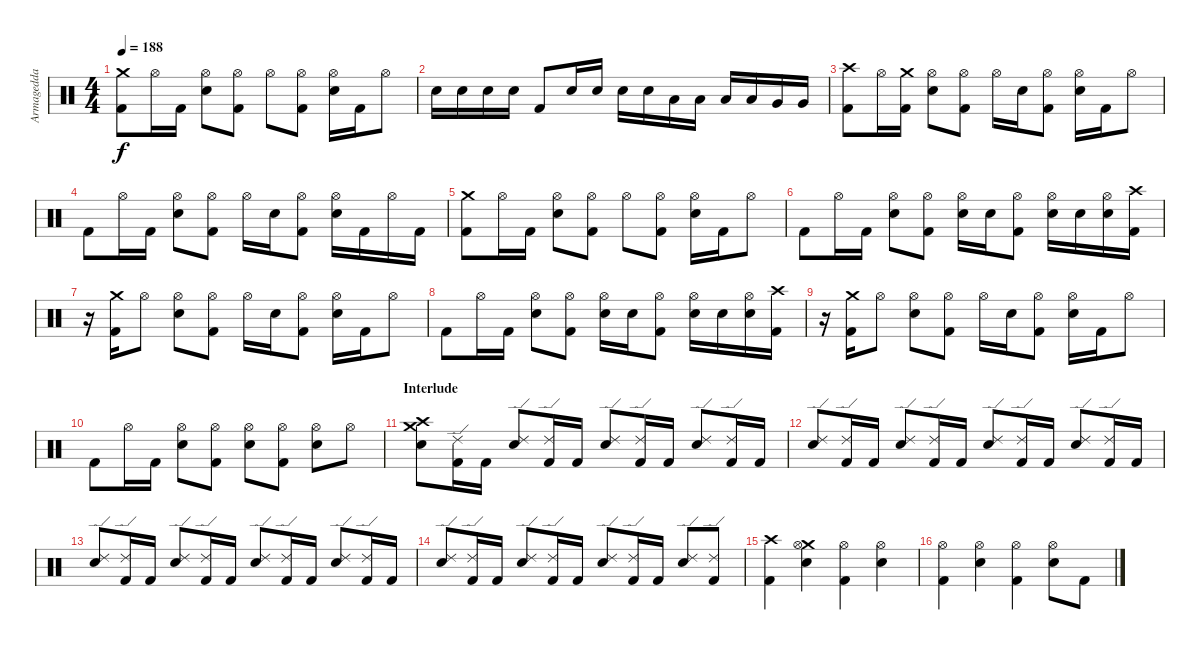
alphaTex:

\track ("Armagedda" "Armagedda") {instrument percussion}
\staff {score}
\articulation defaults
\ts (4 4)
\tempo 188
\clef neutral
\ks c
("Crash medium (hit)" "Kick (hit) 2").8{dy f} "Hi-Hat (open)".16 "Kick (hit) 2".16 ("Hi-Hat (open)" "Electric Snare (hit)").8 ("Hi-Hat (open)" "Kick (hit) 2").8 "Hi-Hat (open)".8 ("Hi-Hat (open)" "Kick (hit) 2").8 ("Hi-Hat (open)" "Electric Snare (hit)").16 "Kick (hit) 2".16 "Hi-Hat (open)".8 |
"Electric Snare (hit)".16 "Electric Snare (hit)".16 "Electric Snare (hit)".16 "Electric Snare (hit)".16 "Kick (hit) 2".8 "Electric Snare (hit)".16 "Electric Snare (hit)".16 "Electric Snare (hit)".16 "Electric Snare (hit)".16 "Low Tom (hit)".16 "Low Tom (hit)".16 "Low Tom (hit)".16 "Low Tom (hit)".16 "Very Low Tom (hit)".16 "Very Low Tom (hit)".16 |
("Crash high (hit)" "Kick (hit) 2").8 "Hi-Hat (open)".16 ("Crash medium (hit)" "Kick (hit) 2").16 ("Hi-Hat (open)" "Electric Snare (hit)").8 ("Hi-Hat (open)" "Kick (hit) 2").8 "Hi-Hat (open)".16 "Electric Snare (hit)".16 ("Hi-Hat (open)" "Kick (hit) 2").8 ("Hi-Hat (open)" "Electric Snare (hit)").16 "Kick (hit) 2".16 "Hi-Hat (open)".8 |
"Kick (hit) 2".8 "Hi-Hat (open)".16 "Kick (hit) 2".16 ("Hi-Hat (open)" "Electric Snare (hit)").8 ("Hi-Hat (open)" "Kick (hit) 2").8 "Hi-Hat (open)".16 "Electric Snare (hit)".16 ("Hi-Hat (open)" "Kick (hit) 2").8 ("Hi-Hat (open)" "Electric Snare (hit)").16 "Kick (hit) 2".16 "Hi-Hat (open)".16 "Kick (hit) 2".16 |
("Crash medium (hit)" "Kick (hit) 2").8 "Hi-Hat (open)".16 "Kick (hit) 2".16 ("Hi-Hat (open)" "Electric Snare (hit)").8 ("Hi-Hat (open)" "Kick (hit) 2").8 "Hi-Hat (open)".8 ("Hi-Hat (open)" "Kick (hit) 2").8 ("Hi-Hat (open)" "Electric Snare (hit)").16 "Kick (hit) 2".16 "Hi-Hat (open)".8 |
"Kick (hit) 2".8 "Hi-Hat (open)".16 "Kick (hit) 2".16 ("Hi-Hat (open)" "Electric Snare (hit)").8 ("Hi-Hat (open)" "Kick (hit) 2").8 ("Hi-Hat (open)" "Electric Snare (hit)").16 "Electric Snare (hit)".16 ("Hi-Hat (open)" "Kick (hit) 2").8 ("Hi-Hat (open)" "Electric Snare (hit)").16 "Electric Snare (hit)".16 ("Hi-Hat (open)" "Electric Snare (hit)").16 ("Crash high (hit)" "Kick (hit) 2").16 |
r.16 ("Crash medium (hit)" "Kick (hit) 2").16 "Hi-Hat (open)".8 ("Hi-Hat (open)" "Electric Snare (hit)").8 ("Hi-Hat (open)" "Kick (hit) 2").8 "Hi-Hat (open)".16 "Electric Snare (hit)".16 ("Hi-Hat (open)" "Kick (hit) 2").8 ("Hi-Hat (open)" "Electric Snare (hit)").16 "Kick (hit) 2".16 "Hi-Hat (open)".8 |
"Kick (hit) 2".8 "Hi-Hat (open)".16 "Kick (hit) 2".16 ("Hi-Hat (open)" "Electric Snare (hit)").8 ("Hi-Hat (open)" "Kick (hit) 2").8 ("Hi-Hat (open)" "Electric Snare (hit)").16 "Electric Snare (hit)".16 ("Hi-Hat (open)" "Kick (hit) 2").8 ("Hi-Hat (open)" "Electric Snare (hit)").16 "Electric Snare (hit)".16 ("Hi-Hat (open)" "Electric Snare (hit)").16 ("Crash high (hit)" "Kick (hit) 2").16 |
r.16 ("Crash medium (hit)" "Kick (hit) 2").16 "Hi-Hat (open)".8 ("Hi-Hat (open)" "Electric Snare (hit)").8 ("Hi-Hat (open)" "Kick (hit) 2").8 "Hi-Hat (open)".16 "Electric Snare (hit)".16 ("Hi-Hat (open)" "Kick (hit) 2").8 ("Hi-Hat (open)" "Electric Snare (hit)").16 "Kick (hit) 2".16 "Hi-Hat (open)".8 |
"Kick (hit) 2".8 "Hi-Hat (open)".16 "Kick (hit) 2".16 ("Hi-Hat (open)" "Electric Snare (hit)").8 ("Hi-Hat (open)" "Kick (hit) 2").8 ("Hi-Hat (open)" "Electric Snare (hit)").8 ("Hi-Hat (open)" "Kick (hit) 2").8 ("Hi-Hat (open)" "Electric Snare (hit)").8 "Hi-Hat (open)".8 |
\section ("" "Interlude")
("Crash medium (hit)" "Crash high (hit)" "Electric Snare (hit)").8 ("Ride (edge) 2" "Kick (hit) 2").16 "Kick (hit) 2".16 ("Ride (edge) 2" "Electric Snare (hit)").8 ("Ride (edge) 2" "Kick (hit) 2").16 "Kick (hit) 2".16 ("Ride (edge) 2" "Electric Snare (hit)").8 ("Ride (edge) 2" "Kick (hit) 2").16 "Kick (hit) 2".16 ("Ride (edge) 2" "Electric Snare (hit)").8 ("Ride (edge) 2" "Kick (hit) 2").16 "Kick (hit) 2".16 |
("Ride (edge) 2" "Electric Snare (hit)").8 ("Ride (edge) 2" "Kick (hit) 2").16 "Kick (hit) 2".16 ("Ride (edge) 2" "Electric Snare (hit)").8 ("Ride (edge) 2" "Kick (hit) 2").16 "Kick (hit) 2".16 ("Ride (edge) 2" "Electric Snare (hit)").8 ("Ride (edge) 2" "Kick (hit) 2").16 "Kick (hit) 2".16 ("Ride (edge) 2" "Electric Snare (hit)").8 ("Ride (edge) 2" "Kick (hit) 2").16 "Kick (hit) 2".16 |
("Ride (edge) 2" "Electric Snare (hit)").8 ("Ride (edge) 2" "Kick (hit) 2").16 "Kick (hit) 2".16 ("Ride (edge) 2" "Electric Snare (hit)").8 ("Ride (edge) 2" "Kick (hit) 2").16 "Kick (hit) 2".16 ("Ride (edge) 2" "Electric Snare (hit)").8 ("Ride (edge) 2" "Kick (hit) 2").16 "Kick (hit) 2".16 ("Ride (edge) 2" "Electric Snare (hit)").8 ("Ride (edge) 2" "Kick (hit) 2").16 "Kick (hit) 2".16 |
("Ride (edge) 2" "Electric Snare (hit)").8 ("Ride (edge) 2" "Kick (hit) 2").16 "Kick (hit) 2".16 ("Ride (edge) 2" "Electric Snare (hit)").8 ("Ride (edge) 2" "Kick (hit) 2").16 "Kick (hit) 2".16 ("Ride (edge) 2" "Electric Snare (hit)").8 ("Ride (edge) 2" "Kick (hit) 2").16 "Kick (hit) 2".16 ("Ride (edge) 2" "Electric Snare (hit)").8 ("Ride (edge) 2" "Kick (hit) 2").8 |
("Crash high (hit)" "Kick (hit) 2").4 ("Crash medium (hit)" "Hi-Hat (open)" "Electric Snare (hit)").4 ("Hi-Hat (open)" "Kick (hit) 2").4 ("Hi-Hat (open)" "Electric Snare (hit)").4 |
("Hi-Hat (open)" "Kick (hit) 2").4 ("Hi-Hat (open)" "Electric Snare (hit)").4 ("Hi-Hat (open)" "Kick (hit) 2").4 ("Hi-Hat (open)" "Electric Snare (hit)").8 "Kick (hit) 2".8
